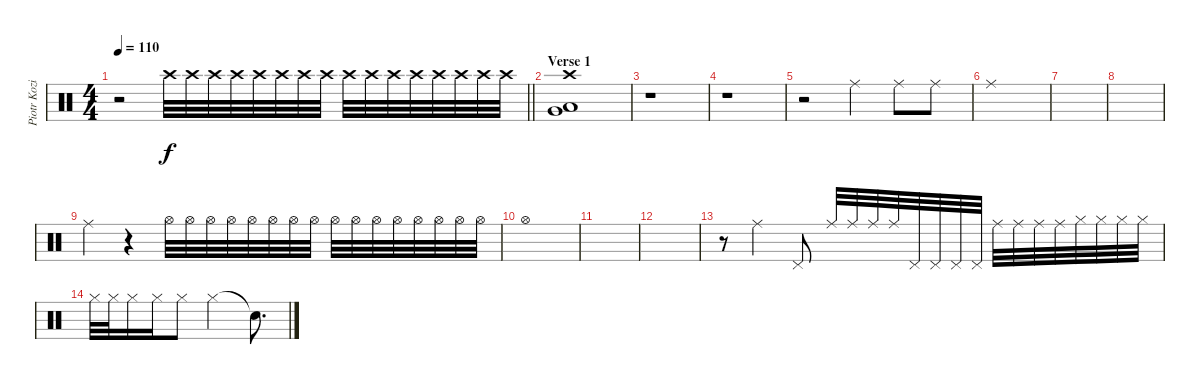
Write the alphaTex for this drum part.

\track ("Piotr Kozieradzki" "Piotr Kozi") {instrument percussion}
\staff {score}
\articulation defaults
\ts (4 4)
\tempo 110
\clef neutral
\barLineRight lightlight
\ks c
r.2{dy f volume 0} "Crash high (hit)".32{volume 13} "Crash high (hit)".32 "Crash high (hit)".32 "Crash high (hit)".32 "Crash high (hit)".32 "Crash high (hit)".32 "Crash high (hit)".32 "Crash high (hit)".32 "Crash high (hit)".32 "Crash high (hit)".32 "Crash high (hit)".32 "Crash high (hit)".32 "Crash high (hit)".32 "Crash high (hit)".32 "Crash high (hit)".32 "Crash high (hit)".32 |
\section ("" "Verse 1")
("Crash high (hit)" "Low Tom (hit)" "Very Low Tom (hit)").1 |
r.1 |
r.1 |
r.2 "Ride (middle)".4 "Ride (middle)".8 "Ride (middle)".8 |
"Ride (middle)".1 |
|
|
"Ride (middle)".4 r.4{volume 0} "Hi-Hat (open)".32{volume 10} "Hi-Hat (open)".32 "Hi-Hat (open)".32 "Hi-Hat (open)".32 "Hi-Hat (open)".32 "Hi-Hat (open)".32 "Hi-Hat (open)".32 "Hi-Hat (open)".32 "Hi-Hat (open)".32 "Hi-Hat (open)".32 "Hi-Hat (open)".32 "Hi-Hat (open)".32 "Hi-Hat (open)".32 "Hi-Hat (open)".32 "Hi-Hat (open)".32 "Hi-Hat (open)".32 |
"Hi-Hat (open)".1 |
|
|
r.8 "Ride (middle)".4 "Pedal Hi-Hat (hit)".8 "Ride (middle)".32 "Ride (middle)".32 "Ride (middle)".32 "Ride (middle)".32 "Pedal Hi-Hat (hit)".32 "Pedal Hi-Hat (hit)".32 "Pedal Hi-Hat (hit)".32 "Pedal Hi-Hat (hit)".32 "Ride (middle)".32 "Ride (middle)".32 "Ride (middle)".32 "Ride (middle)".32 "Hi-Hat (closed)".32 "Hi-Hat (closed)".32 "Hi-Hat (closed)".32 "Hi-Hat (closed)".32 |
"Hi-Hat (closed)".32 "Hi-Hat (closed)".32 "Hi-Hat (closed)".16 "Hi-Hat (closed)".16 "Hi-Hat (closed)".8 "Hi-Hat (closed)".2 "Snare (hit)"{t}.8{d}
